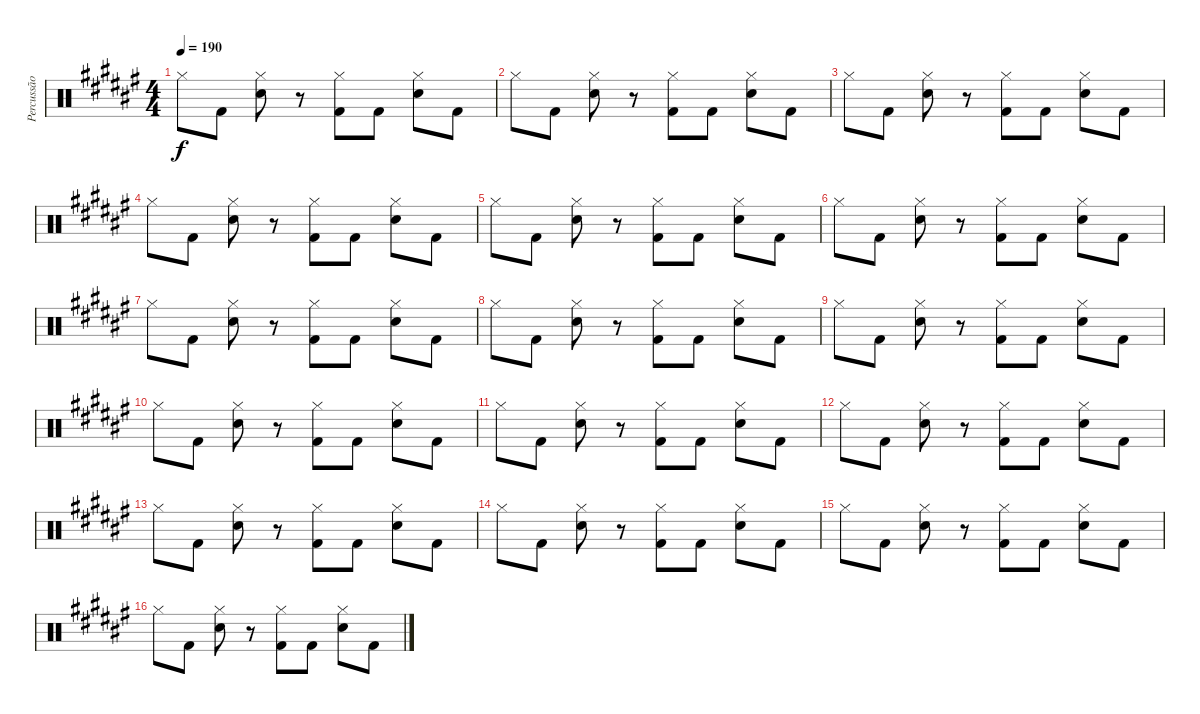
\track ("Percussão" "Percussão") {instrument percussion}
\staff {score}
\articulation defaults
\ts (4 4)
\tempo 190
\clef neutral
\ks d#minor "Hi-Hat (closed)".8{dy f} "Kick (hit) 2".8
("Hi-Hat (closed)" "Snare (hit) 2").8 r.8 ("Hi-Hat (closed)" "Kick (hit) 2").8 "Kick (hit) 2".8 ("Hi-Hat (closed)" "Snare (hit) 2").8 "Kick (hit) 2".8 |
"Hi-Hat (closed)".8 "Kick (hit) 2".8 ("Hi-Hat (closed)" "Snare (hit) 2").8 r.8 ("Hi-Hat (closed)" "Kick (hit) 2").8 "Kick (hit) 2".8 ("Hi-Hat (closed)" "Snare (hit) 2").8 "Kick (hit) 2".8 |
"Hi-Hat (closed)".8 "Kick (hit) 2".8 ("Hi-Hat (closed)" "Snare (hit) 2").8 r.8 ("Hi-Hat (closed)" "Kick (hit) 2").8 "Kick (hit) 2".8 ("Hi-Hat (closed)" "Snare (hit) 2").8 "Kick (hit) 2".8 |
"Hi-Hat (closed)".8 "Kick (hit) 2".8 ("Hi-Hat (closed)" "Snare (hit) 2").8 r.8 ("Hi-Hat (closed)" "Kick (hit) 2").8 "Kick (hit) 2".8 ("Hi-Hat (closed)" "Snare (hit) 2").8 "Kick (hit) 2".8 |
"Hi-Hat (closed)".8 "Kick (hit) 2".8 ("Hi-Hat (closed)" "Snare (hit) 2").8 r.8 ("Hi-Hat (closed)" "Kick (hit) 2").8 "Kick (hit) 2".8 ("Hi-Hat (closed)" "Snare (hit) 2").8 "Kick (hit) 2".8 |
"Hi-Hat (closed)".8 "Kick (hit) 2".8 ("Hi-Hat (closed)" "Snare (hit) 2").8 r.8 ("Hi-Hat (closed)" "Kick (hit) 2").8 "Kick (hit) 2".8 ("Hi-Hat (closed)" "Snare (hit) 2").8 "Kick (hit) 2".8 |
"Hi-Hat (closed)".8 "Kick (hit) 2".8 ("Hi-Hat (closed)" "Snare (hit) 2").8 r.8 ("Hi-Hat (closed)" "Kick (hit) 2").8 "Kick (hit) 2".8 ("Hi-Hat (closed)" "Snare (hit) 2").8 "Kick (hit) 2".8 |
"Hi-Hat (closed)".8 "Kick (hit) 2".8 ("Hi-Hat (closed)" "Snare (hit) 2").8 r.8 ("Hi-Hat (closed)" "Kick (hit) 2").8 "Kick (hit) 2".8 ("Hi-Hat (closed)" "Snare (hit) 2").8 "Kick (hit) 2".8 |
"Hi-Hat (closed)".8 "Kick (hit) 2".8 ("Hi-Hat (closed)" "Snare (hit) 2").8 r.8 ("Hi-Hat (closed)" "Kick (hit) 2").8 "Kick (hit) 2".8 ("Hi-Hat (closed)" "Snare (hit) 2").8 "Kick (hit) 2".8 |
"Hi-Hat (closed)".8 "Kick (hit) 2".8 ("Hi-Hat (closed)" "Snare (hit) 2").8 r.8 ("Hi-Hat (closed)" "Kick (hit) 2").8 "Kick (hit) 2".8 ("Hi-Hat (closed)" "Snare (hit) 2").8 "Kick (hit) 2".8 |
"Hi-Hat (closed)".8 "Kick (hit) 2".8 ("Hi-Hat (closed)" "Snare (hit) 2").8 r.8 ("Hi-Hat (closed)" "Kick (hit) 2").8 "Kick (hit) 2".8 ("Hi-Hat (closed)" "Snare (hit) 2").8 "Kick (hit) 2".8 |
"Hi-Hat (closed)".8 "Kick (hit) 2".8 ("Hi-Hat (closed)" "Snare (hit) 2").8 r.8 ("Hi-Hat (closed)" "Kick (hit) 2").8 "Kick (hit) 2".8 ("Hi-Hat (closed)" "Snare (hit) 2").8 "Kick (hit) 2".8 |
"Hi-Hat (closed)".8 "Kick (hit) 2".8 ("Hi-Hat (closed)" "Snare (hit) 2").8 r.8 ("Hi-Hat (closed)" "Kick (hit) 2").8 "Kick (hit) 2".8 ("Hi-Hat (closed)" "Snare (hit) 2").8 "Kick (hit) 2".8 |
"Hi-Hat (closed)".8 "Kick (hit) 2".8 ("Hi-Hat (closed)" "Snare (hit) 2").8 r.8 ("Hi-Hat (closed)" "Kick (hit) 2").8 "Kick (hit) 2".8 ("Hi-Hat (closed)" "Snare (hit) 2").8 "Kick (hit) 2".8 |
"Hi-Hat (closed)".8 "Kick (hit) 2".8 ("Hi-Hat (closed)" "Snare (hit) 2").8 r.8 ("Hi-Hat (closed)" "Kick (hit) 2").8 "Kick (hit) 2".8 ("Hi-Hat (closed)" "Snare (hit) 2").8 "Kick (hit) 2".8 |
"Hi-Hat (closed)".8 "Kick (hit) 2".8 ("Hi-Hat (closed)" "Snare (hit) 2").8 r.8 ("Hi-Hat (closed)" "Kick (hit) 2").8 "Kick (hit) 2".8 ("Hi-Hat (closed)" "Snare (hit) 2").8 "Kick (hit) 2".8
